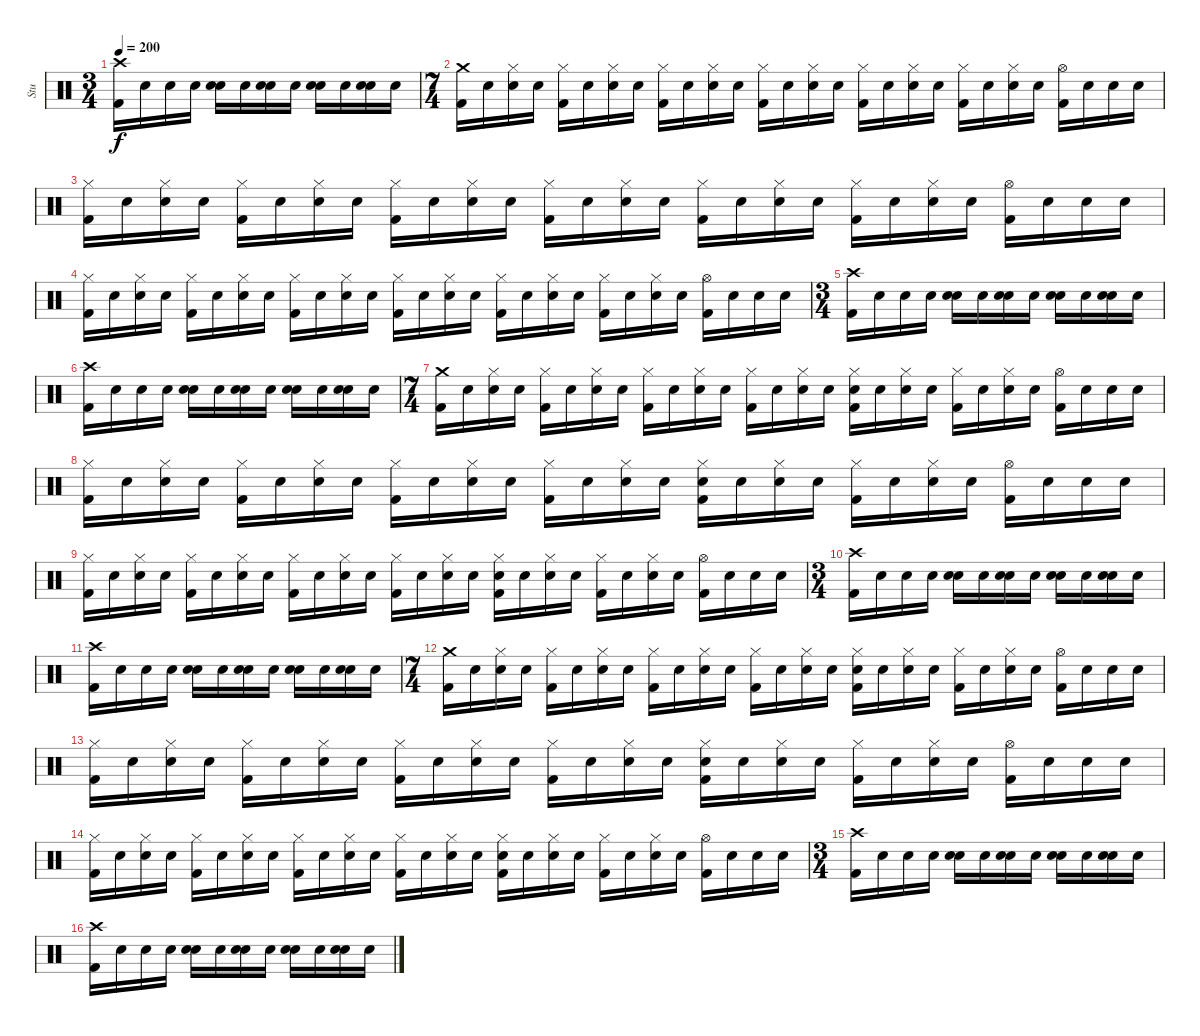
\track ("Stu" "Stu") {instrument percussion}
\staff {score}
\articulation defaults
\ts (3 4)
\tempo 200
\clef neutral
\ks c
("Crash high (hit)" "Kick (hit) 2").16{dy f} "Snare (hit)"{x}.16 "Snare (hit)"{x}.16 "Snare (hit)"{x}.16 ("Electric Snare (hit)" "Snare (hit)"{x}).16 "Snare (hit)"{x}.16 ("Electric Snare (hit)" "Snare (hit)"{x}).16 "Snare (hit)"{x}.16 ("Electric Snare (hit)" "Snare (hit)"{x}).16 "Snare (hit)"{x}.16 ("Electric Snare (hit)" "Snare (hit)"{x}).16 "Snare (hit)"{x}.16 |
\ts (7 4)
("Crash medium (hit)" "Kick (hit) 2").16 "Snare (hit)"{x}.16 ("Hi-Hat (closed)" "Snare (hit)"{x}).16 "Snare (hit)"{x}.16 ("Hi-Hat (closed)" "Kick (hit) 2").16 "Snare (hit)"{x}.16 ("Hi-Hat (closed)" "Snare (hit)"{x}).16 "Snare (hit)"{x}.16 ("Hi-Hat (closed)" "Kick (hit) 2").16 "Snare (hit)"{x}.16 ("Hi-Hat (closed)" "Snare (hit)"{x}).16 "Snare (hit)"{x}.16 ("Hi-Hat (closed)" "Kick (hit) 2").16 "Snare (hit)"{x}.16 ("Hi-Hat (closed)" "Snare (hit)"{x}).16 "Snare (hit)"{x}.16 ("Hi-Hat (closed)" "Kick (hit) 2").16 "Snare (hit)"{x}.16 ("Hi-Hat (closed)" "Snare (hit)"{x}).16 "Snare (hit)"{x}.16 ("Hi-Hat (closed)" "Kick (hit) 2").16 "Snare (hit)"{x}.16 ("Hi-Hat (closed)" "Snare (hit)"{x}).16 "Snare (hit)"{x}.16 ("Hi-Hat (open)" "Kick (hit) 2").16 "Snare (hit)"{x}.16 "Snare (hit)"{x}.16 "Snare (hit)"{x}.16 |
("Hi-Hat (closed)" "Kick (hit) 2").16 "Snare (hit)"{x}.16 ("Hi-Hat (closed)" "Snare (hit)"{x}).16 "Snare (hit)"{x}.16 ("Hi-Hat (closed)" "Kick (hit) 2").16 "Snare (hit)"{x}.16 ("Hi-Hat (closed)" "Snare (hit)"{x}).16 "Snare (hit)"{x}.16 ("Hi-Hat (closed)" "Kick (hit) 2").16 "Snare (hit)"{x}.16 ("Hi-Hat (closed)" "Snare (hit)"{x}).16 "Snare (hit)"{x}.16 ("Hi-Hat (closed)" "Kick (hit) 2").16 "Snare (hit)"{x}.16 ("Hi-Hat (closed)" "Snare (hit)"{x}).16 "Snare (hit)"{x}.16 ("Hi-Hat (closed)" "Kick (hit) 2").16 "Snare (hit)"{x}.16 ("Hi-Hat (closed)" "Snare (hit)"{x}).16 "Snare (hit)"{x}.16 ("Hi-Hat (closed)" "Kick (hit) 2").16 "Snare (hit)"{x}.16 ("Hi-Hat (closed)" "Snare (hit)"{x}).16 "Snare (hit)"{x}.16 ("Hi-Hat (open)" "Kick (hit) 2").16 "Snare (hit)"{x}.16 "Snare (hit)"{x}.16 "Snare (hit)"{x}.16 |
("Hi-Hat (closed)" "Kick (hit) 2").16 "Snare (hit)"{x}.16 ("Hi-Hat (closed)" "Snare (hit)"{x}).16 "Snare (hit)"{x}.16 ("Hi-Hat (closed)" "Kick (hit) 2").16 "Snare (hit)"{x}.16 ("Hi-Hat (closed)" "Snare (hit)"{x}).16 "Snare (hit)"{x}.16 ("Hi-Hat (closed)" "Kick (hit) 2").16 "Snare (hit)"{x}.16 ("Hi-Hat (closed)" "Snare (hit)"{x}).16 "Snare (hit)"{x}.16 ("Hi-Hat (closed)" "Kick (hit) 2").16 "Snare (hit)"{x}.16 ("Hi-Hat (closed)" "Snare (hit)"{x}).16 "Snare (hit)"{x}.16 ("Hi-Hat (closed)" "Kick (hit) 2").16 "Snare (hit)"{x}.16 ("Hi-Hat (closed)" "Snare (hit)"{x}).16 "Snare (hit)"{x}.16 ("Hi-Hat (closed)" "Kick (hit) 2").16 "Snare (hit)"{x}.16 ("Hi-Hat (closed)" "Snare (hit)"{x}).16 "Snare (hit)"{x}.16 ("Hi-Hat (open)" "Kick (hit) 2").16 "Snare (hit)"{x}.16 "Snare (hit)"{x}.16 "Snare (hit)"{x}.16 |
\ts (3 4)
("Crash high (hit)" "Kick (hit) 2").16 "Snare (hit)"{x}.16 "Snare (hit)"{x}.16 "Snare (hit)"{x}.16 ("Electric Snare (hit)" "Snare (hit)"{x}).16 "Snare (hit)"{x}.16 ("Electric Snare (hit)" "Snare (hit)"{x}).16 "Snare (hit)"{x}.16 ("Electric Snare (hit)" "Snare (hit)"{x}).16 "Snare (hit)"{x}.16 ("Electric Snare (hit)" "Snare (hit)"{x}).16 "Snare (hit)"{x}.16 |
("Crash high (hit)" "Kick (hit) 2").16 "Snare (hit)"{x}.16 "Snare (hit)"{x}.16 "Snare (hit)"{x}.16 ("Electric Snare (hit)" "Snare (hit)"{x}).16 "Snare (hit)"{x}.16 ("Electric Snare (hit)" "Snare (hit)"{x}).16 "Snare (hit)"{x}.16 ("Electric Snare (hit)" "Snare (hit)"{x}).16 "Snare (hit)"{x}.16 ("Electric Snare (hit)" "Snare (hit)"{x}).16 "Snare (hit)"{x}.16 |
\ts (7 4)
("Crash medium (hit)" "Kick (hit) 2").16 "Snare (hit)"{x}.16 ("Hi-Hat (closed)" "Snare (hit)"{x}).16 "Snare (hit)"{x}.16 ("Hi-Hat (closed)" "Kick (hit) 2").16 "Snare (hit)"{x}.16 ("Hi-Hat (closed)" "Snare (hit)"{x}).16 "Snare (hit)"{x}.16 ("Hi-Hat (closed)" "Kick (hit) 2").16 "Snare (hit)"{x}.16 ("Hi-Hat (closed)" "Snare (hit)"{x}).16 "Snare (hit)"{x}.16 ("Hi-Hat (closed)" "Kick (hit) 2").16 "Snare (hit)"{x}.16 ("Hi-Hat (closed)" "Snare (hit)"{x}).16 "Snare (hit)"{x}.16 ("Hi-Hat (closed)" "Electric Snare (hit)" "Kick (hit) 2").16 "Snare (hit)"{x}.16 ("Hi-Hat (closed)" "Snare (hit)"{x}).16 "Snare (hit)"{x}.16 ("Hi-Hat (closed)" "Kick (hit) 2").16 "Snare (hit)"{x}.16 ("Hi-Hat (closed)" "Snare (hit)"{x}).16 "Snare (hit)"{x}.16 ("Hi-Hat (open)" "Kick (hit) 2").16 "Snare (hit)"{x}.16 "Snare (hit)"{x}.16 "Snare (hit)"{x}.16 |
("Hi-Hat (closed)" "Kick (hit) 2").16 "Snare (hit)"{x}.16 ("Hi-Hat (closed)" "Snare (hit)"{x}).16 "Snare (hit)"{x}.16 ("Hi-Hat (closed)" "Kick (hit) 2").16 "Snare (hit)"{x}.16 ("Hi-Hat (closed)" "Snare (hit)"{x}).16 "Snare (hit)"{x}.16 ("Hi-Hat (closed)" "Kick (hit) 2").16 "Snare (hit)"{x}.16 ("Hi-Hat (closed)" "Snare (hit)"{x}).16 "Snare (hit)"{x}.16 ("Hi-Hat (closed)" "Kick (hit) 2").16 "Snare (hit)"{x}.16 ("Hi-Hat (closed)" "Snare (hit)"{x}).16 "Snare (hit)"{x}.16 ("Hi-Hat (closed)" "Electric Snare (hit)" "Kick (hit) 2").16 "Snare (hit)"{x}.16 ("Hi-Hat (closed)" "Snare (hit)"{x}).16 "Snare (hit)"{x}.16 ("Hi-Hat (closed)" "Kick (hit) 2").16 "Snare (hit)"{x}.16 ("Hi-Hat (closed)" "Snare (hit)"{x}).16 "Snare (hit)"{x}.16 ("Hi-Hat (open)" "Kick (hit) 2").16 "Snare (hit)"{x}.16 "Snare (hit)"{x}.16 "Snare (hit)"{x}.16 |
("Hi-Hat (closed)" "Kick (hit) 2").16 "Snare (hit)"{x}.16 ("Hi-Hat (closed)" "Snare (hit)"{x}).16 "Snare (hit)"{x}.16 ("Hi-Hat (closed)" "Kick (hit) 2").16 "Snare (hit)"{x}.16 ("Hi-Hat (closed)" "Snare (hit)"{x}).16 "Snare (hit)"{x}.16 ("Hi-Hat (closed)" "Kick (hit) 2").16 "Snare (hit)"{x}.16 ("Hi-Hat (closed)" "Snare (hit)"{x}).16 "Snare (hit)"{x}.16 ("Hi-Hat (closed)" "Kick (hit) 2").16 "Snare (hit)"{x}.16 ("Hi-Hat (closed)" "Snare (hit)"{x}).16 "Snare (hit)"{x}.16 ("Hi-Hat (closed)" "Electric Snare (hit)" "Kick (hit) 2").16 "Snare (hit)"{x}.16 ("Hi-Hat (closed)" "Snare (hit)"{x}).16 "Snare (hit)"{x}.16 ("Hi-Hat (closed)" "Kick (hit) 2").16 "Snare (hit)"{x}.16 ("Hi-Hat (closed)" "Snare (hit)"{x}).16 "Snare (hit)"{x}.16 ("Hi-Hat (open)" "Kick (hit) 2").16 "Snare (hit)"{x}.16 "Snare (hit)"{x}.16 "Snare (hit)"{x}.16 |
\ts (3 4)
("Crash high (hit)" "Kick (hit) 2").16 "Snare (hit)"{x}.16 "Snare (hit)"{x}.16 "Snare (hit)"{x}.16 ("Electric Snare (hit)" "Snare (hit)"{x}).16 "Snare (hit)"{x}.16 ("Electric Snare (hit)" "Snare (hit)"{x}).16 "Snare (hit)"{x}.16 ("Electric Snare (hit)" "Snare (hit)"{x}).16 "Snare (hit)"{x}.16 ("Electric Snare (hit)" "Snare (hit)"{x}).16 "Snare (hit)"{x}.16 |
("Crash high (hit)" "Kick (hit) 2").16 "Snare (hit)"{x}.16 "Snare (hit)"{x}.16 "Snare (hit)"{x}.16 ("Electric Snare (hit)" "Snare (hit)"{x}).16 "Snare (hit)"{x}.16 ("Electric Snare (hit)" "Snare (hit)"{x}).16 "Snare (hit)"{x}.16 ("Electric Snare (hit)" "Snare (hit)"{x}).16 "Snare (hit)"{x}.16 ("Electric Snare (hit)" "Snare (hit)"{x}).16 "Snare (hit)"{x}.16 |
\ts (7 4)
("Crash medium (hit)" "Kick (hit) 2").16 "Snare (hit)"{x}.16 ("Hi-Hat (closed)" "Snare (hit)"{x}).16 "Snare (hit)"{x}.16 ("Hi-Hat (closed)" "Kick (hit) 2").16 "Snare (hit)"{x}.16 ("Hi-Hat (closed)" "Snare (hit)"{x}).16 "Snare (hit)"{x}.16 ("Hi-Hat (closed)" "Kick (hit) 2").16 "Snare (hit)"{x}.16 ("Hi-Hat (closed)" "Snare (hit)"{x}).16 "Snare (hit)"{x}.16 ("Hi-Hat (closed)" "Kick (hit) 2").16 "Snare (hit)"{x}.16 ("Hi-Hat (closed)" "Snare (hit)"{x}).16 "Snare (hit)"{x}.16 ("Hi-Hat (closed)" "Electric Snare (hit)" "Kick (hit) 2").16 "Snare (hit)"{x}.16 ("Hi-Hat (closed)" "Snare (hit)"{x}).16 "Snare (hit)"{x}.16 ("Hi-Hat (closed)" "Kick (hit) 2").16 "Snare (hit)"{x}.16 ("Hi-Hat (closed)" "Snare (hit)"{x}).16 "Snare (hit)"{x}.16 ("Hi-Hat (open)" "Kick (hit) 2").16 "Snare (hit)"{x}.16 "Snare (hit)"{x}.16 "Snare (hit)"{x}.16 |
("Hi-Hat (closed)" "Kick (hit) 2").16 "Snare (hit)"{x}.16 ("Hi-Hat (closed)" "Snare (hit)"{x}).16 "Snare (hit)"{x}.16 ("Hi-Hat (closed)" "Kick (hit) 2").16 "Snare (hit)"{x}.16 ("Hi-Hat (closed)" "Snare (hit)"{x}).16 "Snare (hit)"{x}.16 ("Hi-Hat (closed)" "Kick (hit) 2").16 "Snare (hit)"{x}.16 ("Hi-Hat (closed)" "Snare (hit)"{x}).16 "Snare (hit)"{x}.16 ("Hi-Hat (closed)" "Kick (hit) 2").16 "Snare (hit)"{x}.16 ("Hi-Hat (closed)" "Snare (hit)"{x}).16 "Snare (hit)"{x}.16 ("Hi-Hat (closed)" "Electric Snare (hit)" "Kick (hit) 2").16 "Snare (hit)"{x}.16 ("Hi-Hat (closed)" "Snare (hit)"{x}).16 "Snare (hit)"{x}.16 ("Hi-Hat (closed)" "Kick (hit) 2").16 "Snare (hit)"{x}.16 ("Hi-Hat (closed)" "Snare (hit)"{x}).16 "Snare (hit)"{x}.16 ("Hi-Hat (open)" "Kick (hit) 2").16 "Snare (hit)"{x}.16 "Snare (hit)"{x}.16 "Snare (hit)"{x}.16 |
("Hi-Hat (closed)" "Kick (hit) 2").16 "Snare (hit)"{x}.16 ("Hi-Hat (closed)" "Snare (hit)"{x}).16 "Snare (hit)"{x}.16 ("Hi-Hat (closed)" "Kick (hit) 2").16 "Snare (hit)"{x}.16 ("Hi-Hat (closed)" "Snare (hit)"{x}).16 "Snare (hit)"{x}.16 ("Hi-Hat (closed)" "Kick (hit) 2").16 "Snare (hit)"{x}.16 ("Hi-Hat (closed)" "Snare (hit)"{x}).16 "Snare (hit)"{x}.16 ("Hi-Hat (closed)" "Kick (hit) 2").16 "Snare (hit)"{x}.16 ("Hi-Hat (closed)" "Snare (hit)"{x}).16 "Snare (hit)"{x}.16 ("Hi-Hat (closed)" "Electric Snare (hit)" "Kick (hit) 2").16 "Snare (hit)"{x}.16 ("Hi-Hat (closed)" "Snare (hit)"{x}).16 "Snare (hit)"{x}.16 ("Hi-Hat (closed)" "Kick (hit) 2").16 "Snare (hit)"{x}.16 ("Hi-Hat (closed)" "Snare (hit)"{x}).16 "Snare (hit)"{x}.16 ("Hi-Hat (open)" "Kick (hit) 2").16 "Snare (hit)"{x}.16 "Snare (hit)"{x}.16 "Snare (hit)"{x}.16 |
\ts (3 4)
("Crash high (hit)" "Kick (hit) 2").16 "Snare (hit)"{x}.16 "Snare (hit)"{x}.16 "Snare (hit)"{x}.16 ("Electric Snare (hit)" "Snare (hit)"{x}).16 "Snare (hit)"{x}.16 ("Electric Snare (hit)" "Snare (hit)"{x}).16 "Snare (hit)"{x}.16 ("Electric Snare (hit)" "Snare (hit)"{x}).16 "Snare (hit)"{x}.16 ("Electric Snare (hit)" "Snare (hit)"{x}).16 "Snare (hit)"{x}.16 |
("Crash high (hit)" "Kick (hit) 2").16 "Snare (hit)"{x}.16 "Snare (hit)"{x}.16 "Snare (hit)"{x}.16 ("Electric Snare (hit)" "Snare (hit)"{x}).16 "Snare (hit)"{x}.16 ("Electric Snare (hit)" "Snare (hit)"{x}).16 "Snare (hit)"{x}.16 ("Electric Snare (hit)" "Snare (hit)"{x}).16 "Snare (hit)"{x}.16 ("Electric Snare (hit)" "Snare (hit)"{x}).16 "Snare (hit)"{x}.16
